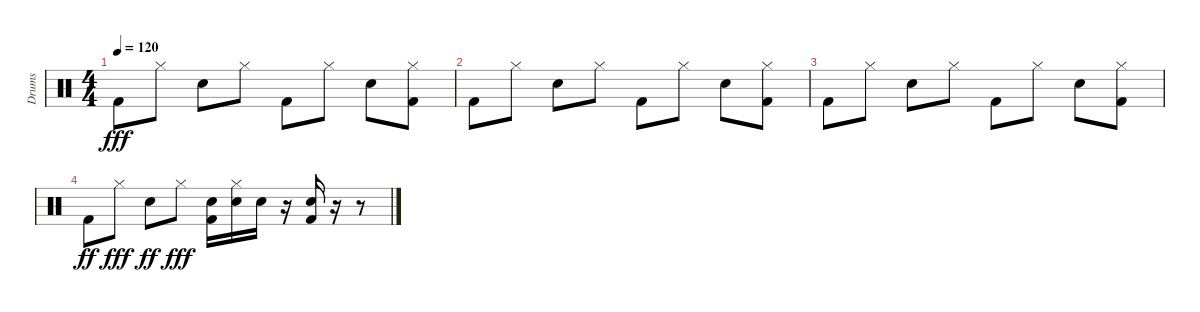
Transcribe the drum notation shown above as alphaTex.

\track ("Drums" "Drums") {instrument percussion}
\staff {score}
\articulation defaults
\ts (4 4)
\tempo 120
\clef neutral
\ks c "Kick (hit) 2".8{dy fff} "Hi-Hat (closed)".8 "Snare (hit) 2".8 "Hi-Hat (closed)".8 "Kick (hit) 2".8 "Hi-Hat (closed)".8 "Snare (hit) 2".8
("Hi-Hat (closed)" "Kick (hit) 2").8 |
"Kick (hit) 2".8 "Hi-Hat (closed)".8 "Snare (hit) 2".8 "Hi-Hat (closed)".8 "Kick (hit) 2".8 "Hi-Hat (closed)".8 "Snare (hit) 2".8 ("Hi-Hat (closed)" "Kick (hit) 2").8 |
"Kick (hit) 2".8 "Hi-Hat (closed)".8 "Snare (hit) 2".8 "Hi-Hat (closed)".8 "Kick (hit) 2".8 "Hi-Hat (closed)".8 "Snare (hit) 2".8 ("Hi-Hat (closed)" "Kick (hit) 2").8 |
"Kick (hit) 2".8{dy ff} "Hi-Hat (closed)".8{dy fff} "Snare (hit) 2".8{dy ff} "Hi-Hat (closed)".8{dy fff} ("Snare (hit) 2" "Kick (hit) 2").16 ("Hi-Hat (closed)" "Snare (hit) 2").16 "Snare (hit) 2".16 r.16 ("Snare (hit) 2" "Kick (hit) 2").16 r.16 r.8
